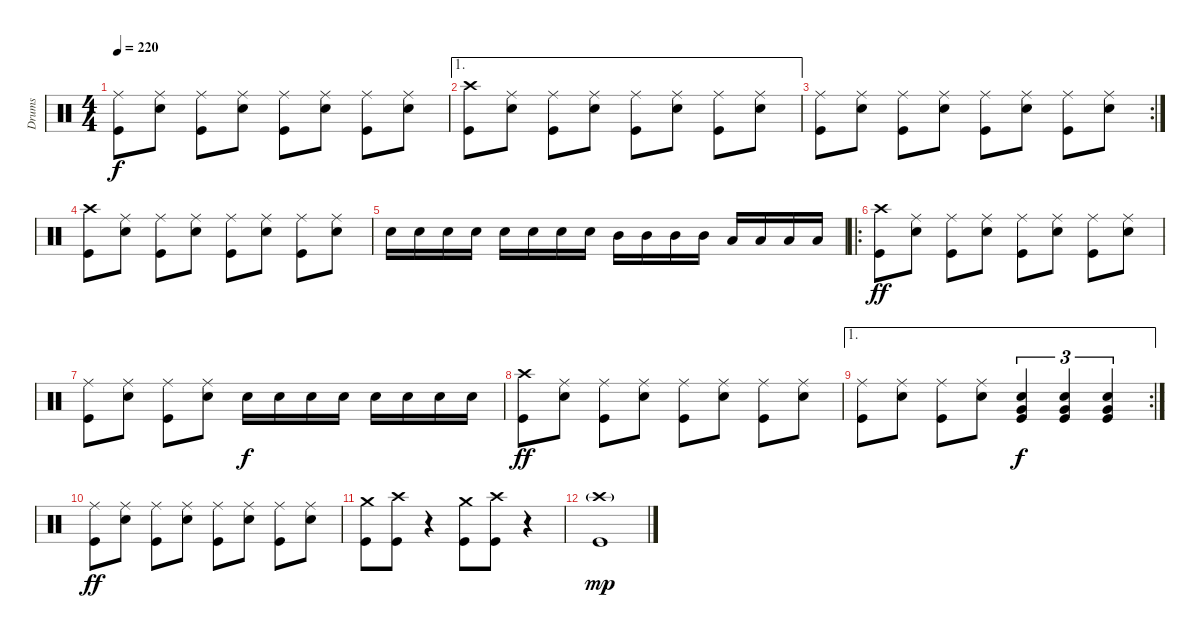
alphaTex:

\track ("Drums" "Drums") {instrument percussion}
\staff {score}
\articulation defaults
\ts (4 4)
\tempo 220
\clef neutral
\ks c
("Ride (middle)" "Kick (hit)").8{dy f} ("Ride (middle)" "Snare (hit) 2").8 ("Ride (middle)" "Kick (hit)").8 ("Ride (middle)" "Snare (hit) 2").8 ("Ride (middle)" "Kick (hit)").8 ("Ride (middle)" "Snare (hit) 2").8 ("Ride (middle)" "Kick (hit)").8 ("Ride (middle)" "Snare (hit) 2").8 |
\ae 1
("Crash high (hit)" "Kick (hit)").8 ("Ride (middle)" "Snare (hit) 2").8 ("Ride (middle)" "Kick (hit)").8 ("Ride (middle)" "Snare (hit) 2").8 ("Ride (middle)" "Kick (hit)").8 ("Ride (middle)" "Snare (hit) 2").8 ("Ride (middle)" "Kick (hit)").8 ("Ride (middle)" "Snare (hit) 2").8 |
\rc 2
("Ride (middle)" "Kick (hit)").8 ("Ride (middle)" "Snare (hit) 2").8 ("Ride (middle)" "Kick (hit)").8 ("Ride (middle)" "Snare (hit) 2").8 ("Ride (middle)" "Kick (hit)").8 ("Ride (middle)" "Snare (hit) 2").8 ("Ride (middle)" "Kick (hit)").8 ("Ride (middle)" "Snare (hit) 2").8 |
("Crash high (hit)" "Kick (hit)").8 ("Ride (middle)" "Snare (hit) 2").8 ("Ride (middle)" "Kick (hit)").8 ("Ride (middle)" "Snare (hit) 2").8 ("Ride (middle)" "Kick (hit)").8 ("Ride (middle)" "Snare (hit) 2").8 ("Ride (middle)" "Kick (hit)").8 ("Ride (middle)" "Snare (hit) 2").8 |
"Snare (hit) 2".16 "Snare (hit) 2".16 "Snare (hit) 2".16 "Snare (hit) 2".16 "Snare (hit) 2".16 "Snare (hit) 2".16 "Snare (hit) 2".16 "Snare (hit) 2".16 "Mid Tom (hit)".16 "Mid Tom (hit)".16 "Mid Tom (hit)".16 "Mid Tom (hit)".16 "Low Tom (hit)".16 "Low Tom (hit)".16 "Low Tom (hit)".16 "Low Tom (hit)".16 |
\ro
("Crash high (hit)" "Kick (hit)").8{dy ff} ("Ride (middle)" "Snare (hit) 2").8 ("Ride (middle)" "Kick (hit)").8 ("Ride (middle)" "Snare (hit) 2").8 ("Ride (middle)" "Kick (hit)").8 ("Ride (middle)" "Snare (hit) 2").8 ("Ride (middle)" "Kick (hit)").8 ("Ride (middle)" "Snare (hit) 2").8 |
("Ride (middle)" "Kick (hit)").8 ("Ride (middle)" "Snare (hit) 2").8 ("Ride (middle)" "Kick (hit)").8 ("Ride (middle)" "Snare (hit) 2").8 "Snare (hit) 2".16{dy f} "Snare (hit) 2".16 "Snare (hit) 2".16 "Snare (hit) 2".16 "Snare (hit) 2".16 "Snare (hit) 2".16 "Snare (hit) 2".16 "Snare (hit) 2".16 |
("Crash high (hit)" "Kick (hit)").8{dy ff} ("Ride (middle)" "Snare (hit) 2").8 ("Ride (middle)" "Kick (hit)").8 ("Ride (middle)" "Snare (hit) 2").8 ("Ride (middle)" "Kick (hit)").8 ("Ride (middle)" "Snare (hit) 2").8 ("Ride (middle)" "Kick (hit)").8 ("Ride (middle)" "Snare (hit) 2").8 |
\ae 1
\rc 2
("Ride (middle)" "Kick (hit)").8 ("Ride (middle)" "Snare (hit) 2").8 ("Ride (middle)" "Kick (hit)").8 ("Ride (middle)" "Snare (hit) 2").8 ("Very Low Tom (hit)" "Snare (hit) 2" "Kick (hit)").4{tu (3 2) dy f} ("Very Low Tom (hit)" "Snare (hit) 2" "Kick (hit)").4{tu (3 2)} ("Very Low Tom (hit)" "Snare (hit) 2" "Kick (hit)").4{tu (3 2)} |
("Ride (middle)" "Kick (hit)").8{dy ff} ("Ride (middle)" "Snare (hit) 2").8 ("Ride (middle)" "Kick (hit)").8 ("Ride (middle)" "Snare (hit) 2").8 ("Ride (middle)" "Kick (hit)").8 ("Ride (middle)" "Snare (hit) 2").8 ("Ride (middle)" "Kick (hit)").8 ("Ride (middle)" "Snare (hit) 2").8 |
("Crash medium (hit)" "Kick (hit)").8 ("Crash high (hit)" "Kick (hit)").8 r.4 ("Crash medium (hit)" "Kick (hit)").8 ("Crash high (hit)" "Kick (hit)").8 r.4 |
("Crash high (hit)"{g} "Kick (hit)").1{dy mp}
